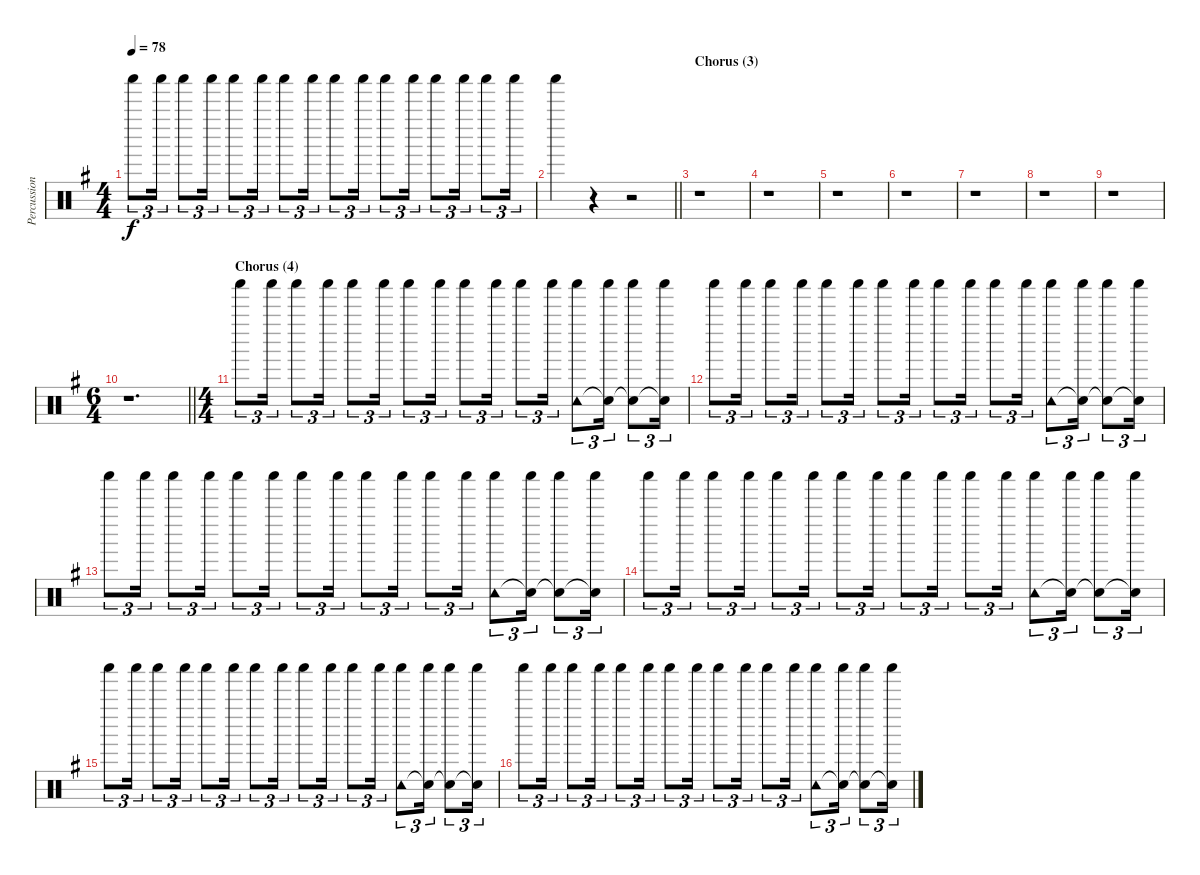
\track ("Percussion" "Percussion") {instrument percussion}
\staff {score}
\articulation defaults
\ts (4 4)
\tempo 78
\clef neutral
\ks g "Shaker (hit)".8{tu (3 2) dy f} "Shaker (hit)".16{tu (3 2)} "Shaker (hit)".8{tu (3 2)} "Shaker (hit)".16{tu (3 2)} "Shaker (hit)".8{tu (3 2)} "Shaker (hit)".16{tu (3 2)} "Shaker (hit)".8{tu (3 2)} "Shaker (hit)".16{tu (3 2)} "Shaker (hit)".8{tu (3 2)} "Shaker (hit)".16{tu (3 2)} "Shaker (hit)".8{tu (3 2)} "Shaker (hit)".16{tu (3 2)} "Shaker (hit)".8{tu (3 2)} "Shaker (hit)".16{tu (3 2)} "Shaker (hit)".8{tu (3 2)} "Shaker (hit)".16{tu (3 2)}
|
\barLineRight lightlight "Shaker (hit)".4
r.4 r.2 |
\section ("" "Chorus (3)")
r.1 |
r.1 |
r.1 |
r.1 |
r.1 |
r.1 |
r.1 |
\ts (6 4)
\barLineRight lightlight
r.1{d} |
\ts (4 4)
\section ("" "Chorus (4)")
"Shaker (hit)".8{tu (3 2)} "Shaker (hit)".16{tu (3 2)} "Shaker (hit)".8{tu (3 2)} "Shaker (hit)".16{tu (3 2)} "Shaker (hit)".8{tu (3 2)} "Shaker (hit)".16{tu (3 2)} "Shaker (hit)".8{tu (3 2)} "Shaker (hit)".16{tu (3 2)} "Shaker (hit)".8{tu (3 2)} "Shaker (hit)".16{tu (3 2)} "Shaker (hit)".8{tu (3 2)} "Shaker (hit)".16{tu (3 2)} ("Shaker (hit)" "Tambourine (hit)").8{tu (3 2)} ("Shaker (hit)" "Snare (hit)"{t}).16{tu (3 2)} ("Shaker (hit)" "Snare (hit)"{t}).8{tu (3 2)} ("Shaker (hit)" "Snare (hit)"{t}).16{tu (3 2)} |
"Shaker (hit)".8{tu (3 2)} "Shaker (hit)".16{tu (3 2)} "Shaker (hit)".8{tu (3 2)} "Shaker (hit)".16{tu (3 2)} "Shaker (hit)".8{tu (3 2)} "Shaker (hit)".16{tu (3 2)} "Shaker (hit)".8{tu (3 2)} "Shaker (hit)".16{tu (3 2)} "Shaker (hit)".8{tu (3 2)} "Shaker (hit)".16{tu (3 2)} "Shaker (hit)".8{tu (3 2)} "Shaker (hit)".16{tu (3 2)} ("Shaker (hit)" "Tambourine (hit)").8{tu (3 2)} ("Shaker (hit)" "Snare (hit)"{t}).16{tu (3 2)} ("Shaker (hit)" "Snare (hit)"{t}).8{tu (3 2)} ("Shaker (hit)" "Snare (hit)"{t}).16{tu (3 2)} |
"Shaker (hit)".8{tu (3 2)} "Shaker (hit)".16{tu (3 2)} "Shaker (hit)".8{tu (3 2)} "Shaker (hit)".16{tu (3 2)} "Shaker (hit)".8{tu (3 2)} "Shaker (hit)".16{tu (3 2)} "Shaker (hit)".8{tu (3 2)} "Shaker (hit)".16{tu (3 2)} "Shaker (hit)".8{tu (3 2)} "Shaker (hit)".16{tu (3 2)} "Shaker (hit)".8{tu (3 2)} "Shaker (hit)".16{tu (3 2)} ("Shaker (hit)" "Tambourine (hit)").8{tu (3 2)} ("Shaker (hit)" "Snare (hit)"{t}).16{tu (3 2)} ("Shaker (hit)" "Snare (hit)"{t}).8{tu (3 2)} ("Shaker (hit)" "Snare (hit)"{t}).16{tu (3 2)} |
"Shaker (hit)".8{tu (3 2)} "Shaker (hit)".16{tu (3 2)} "Shaker (hit)".8{tu (3 2)} "Shaker (hit)".16{tu (3 2)} "Shaker (hit)".8{tu (3 2)} "Shaker (hit)".16{tu (3 2)} "Shaker (hit)".8{tu (3 2)} "Shaker (hit)".16{tu (3 2)} "Shaker (hit)".8{tu (3 2)} "Shaker (hit)".16{tu (3 2)} "Shaker (hit)".8{tu (3 2)} "Shaker (hit)".16{tu (3 2)} ("Shaker (hit)" "Tambourine (hit)").8{tu (3 2)} ("Shaker (hit)" "Snare (hit)"{t}).16{tu (3 2)} ("Shaker (hit)" "Snare (hit)"{t}).8{tu (3 2)} ("Shaker (hit)" "Snare (hit)"{t}).16{tu (3 2)} |
"Shaker (hit)".8{tu (3 2)} "Shaker (hit)".16{tu (3 2)} "Shaker (hit)".8{tu (3 2)} "Shaker (hit)".16{tu (3 2)} "Shaker (hit)".8{tu (3 2)} "Shaker (hit)".16{tu (3 2)} "Shaker (hit)".8{tu (3 2)} "Shaker (hit)".16{tu (3 2)} "Shaker (hit)".8{tu (3 2)} "Shaker (hit)".16{tu (3 2)} "Shaker (hit)".8{tu (3 2)} "Shaker (hit)".16{tu (3 2)} ("Shaker (hit)" "Tambourine (hit)").8{tu (3 2)} ("Shaker (hit)" "Snare (hit)"{t}).16{tu (3 2)} ("Shaker (hit)" "Snare (hit)"{t}).8{tu (3 2)} ("Shaker (hit)" "Snare (hit)"{t}).16{tu (3 2)} |
"Shaker (hit)".8{tu (3 2)} "Shaker (hit)".16{tu (3 2)} "Shaker (hit)".8{tu (3 2)} "Shaker (hit)".16{tu (3 2)} "Shaker (hit)".8{tu (3 2)} "Shaker (hit)".16{tu (3 2)} "Shaker (hit)".8{tu (3 2)} "Shaker (hit)".16{tu (3 2)} "Shaker (hit)".8{tu (3 2)} "Shaker (hit)".16{tu (3 2)} "Shaker (hit)".8{tu (3 2)} "Shaker (hit)".16{tu (3 2)} ("Shaker (hit)" "Tambourine (hit)").8{tu (3 2)} ("Shaker (hit)" "Snare (hit)"{t}).16{tu (3 2)} ("Shaker (hit)" "Snare (hit)"{t}).8{tu (3 2)} ("Shaker (hit)" "Snare (hit)"{t}).16{tu (3 2)}
